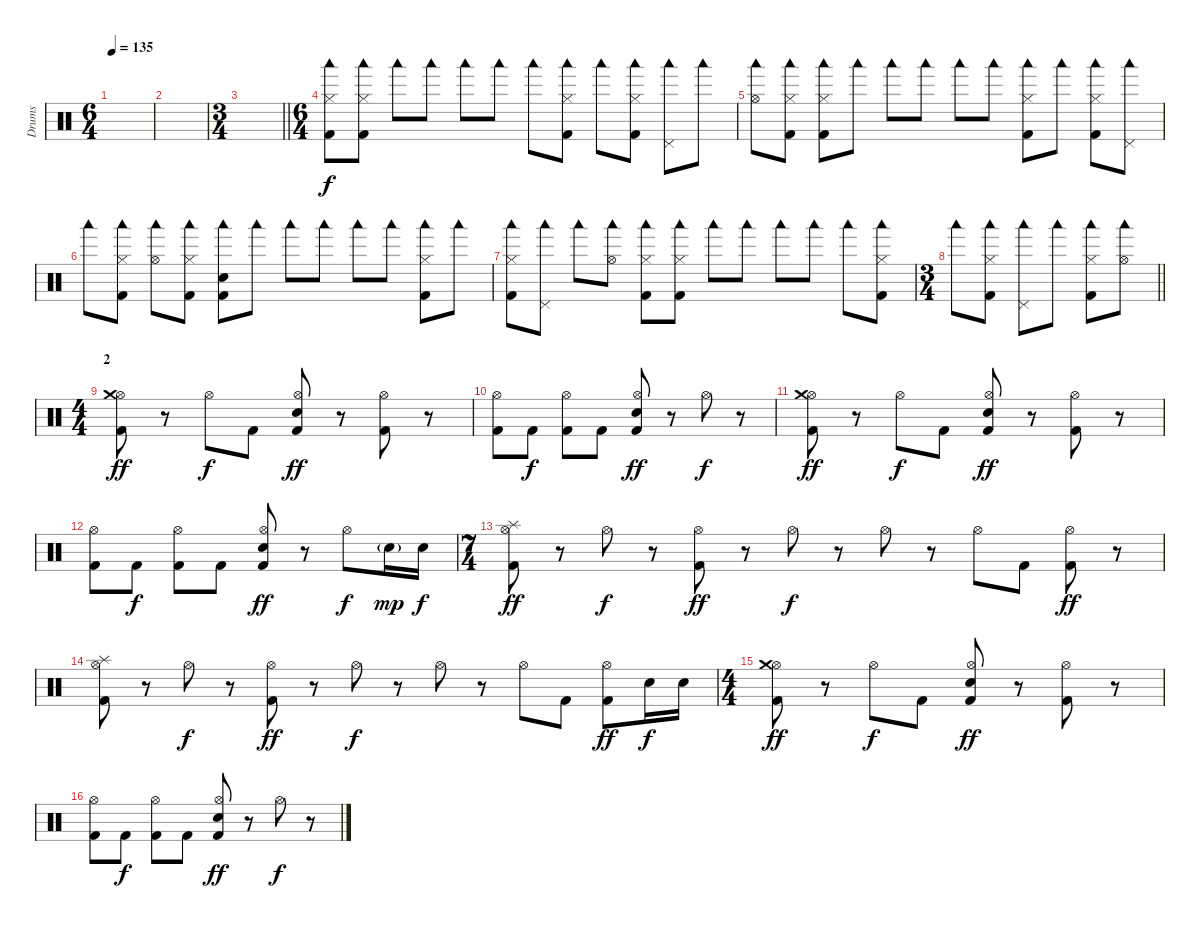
\track ("Drums" "Drums") {instrument percussion}
\staff {score}
\articulation defaults
\ts (6 4)
\tempo 135
\clef neutral
\ks c
|
|
\ts (3 4)
\barLineRight lightlight
|
\ts (6 4)
("Hi-Hat (closed)" "Woodblock low (hit)" "Kick (hit) 2").8{dy f} ("Hi-Hat (closed)" "Woodblock low (hit)" "Kick (hit) 2").8 "Woodblock low (hit)".8 "Woodblock low (hit)".8 "Woodblock low (hit)".8 "Woodblock low (hit)".8 "Woodblock low (hit)".8 ("Hi-Hat (closed)" "Woodblock low (hit)" "Kick (hit) 2").8 "Woodblock low (hit)".8 ("Hi-Hat (closed)" "Woodblock low (hit)" "Kick (hit) 2").8 ("Pedal Hi-Hat (hit)" "Woodblock low (hit)").8 "Woodblock low (hit)".8 |
("Hi-Hat (open)" "Woodblock low (hit)").8 ("Hi-Hat (closed)" "Woodblock low (hit)" "Kick (hit) 2").8 ("Hi-Hat (closed)" "Woodblock low (hit)" "Kick (hit) 2").8 "Woodblock low (hit)".8 "Woodblock low (hit)".8 "Woodblock low (hit)".8 "Woodblock low (hit)".8 "Woodblock low (hit)".8 ("Hi-Hat (closed)" "Woodblock low (hit)" "Kick (hit) 2").8 "Woodblock low (hit)".8 ("Hi-Hat (closed)" "Woodblock low (hit)" "Kick (hit) 2").8 ("Pedal Hi-Hat (hit)" "Woodblock low (hit)").8 |
"Woodblock low (hit)".8 ("Hi-Hat (closed)" "Woodblock low (hit)" "Kick (hit) 2").8 ("Hi-Hat (open)" "Woodblock low (hit)").8 ("Hi-Hat (closed)" "Woodblock low (hit)" "Kick (hit) 2").8 ("Snare (hit)" "Woodblock low (hit)" "Kick (hit) 2").8 "Woodblock low (hit)".8 "Woodblock low (hit)".8 "Woodblock low (hit)".8 "Woodblock low (hit)".8 "Woodblock low (hit)".8 ("Hi-Hat (closed)" "Woodblock low (hit)" "Kick (hit) 2").8 "Woodblock low (hit)".8 |
("Hi-Hat (closed)" "Woodblock low (hit)" "Kick (hit) 2").8 ("Pedal Hi-Hat (hit)" "Woodblock low (hit)").8 "Woodblock low (hit)".8 ("Hi-Hat (open)" "Woodblock low (hit)").8 ("Hi-Hat (closed)" "Woodblock low (hit)" "Kick (hit) 2").8 ("Hi-Hat (closed)" "Woodblock low (hit)" "Kick (hit) 2").8 "Woodblock low (hit)".8 "Woodblock low (hit)".8 "Woodblock low (hit)".8 "Woodblock low (hit)".8 "Woodblock low (hit)".8 ("Hi-Hat (closed)" "Woodblock low (hit)" "Kick (hit) 2").8 |
\ts (3 4)
\barLineRight lightlight "Woodblock low (hit)".8
("Hi-Hat (closed)" "Woodblock low (hit)" "Kick (hit) 2").8 ("Pedal Hi-Hat (hit)" "Woodblock low (hit)").8 "Woodblock low (hit)".8 ("Hi-Hat (closed)" "Woodblock low (hit)" "Kick (hit) 2").8 ("Hi-Hat (open)" "Woodblock low (hit)").8 |
\ts (4 4)
\section ("" "2")
("Hi-Hat (open)" "Crash medium (hit)" "Kick (hit) 2").8{dy ff} r.8 "Hi-Hat (open)".8{dy f} "Kick (hit) 2".8 ("Hi-Hat (open)" "Snare (hit) 2" "Kick (hit) 2").8{dy ff} r.8 ("Hi-Hat (open)" "Kick (hit) 2").8 r.8 |
("Hi-Hat (open)" "Kick (hit) 2").8 "Kick (hit) 2".8{dy f} ("Hi-Hat (open)" "Kick (hit) 2").8 "Kick (hit) 2".8 ("Hi-Hat (open)" "Snare (hit) 2" "Kick (hit) 2").8{dy ff} r.8 "Hi-Hat (open)".8{dy f} r.8 |
("Hi-Hat (open)" "Crash medium (hit)" "Kick (hit) 2").8{dy ff} r.8 "Hi-Hat (open)".8{dy f} "Kick (hit) 2".8 ("Hi-Hat (open)" "Snare (hit) 2" "Kick (hit) 2").8{dy ff} r.8 ("Hi-Hat (open)" "Kick (hit) 2").8 r.8 |
("Hi-Hat (open)" "Kick (hit) 2").8 "Kick (hit) 2".8{dy f} ("Hi-Hat (open)" "Kick (hit) 2").8 "Kick (hit) 2".8 ("Hi-Hat (open)" "Snare (hit) 2" "Kick (hit) 2").8{dy ff} r.8 "Hi-Hat (open)".8{dy f} "Snare (hit) 2"{g}.16{dy mp} "Snare (hit) 2".16{dy f} |
\ts (7 4)
("Hi-Hat (open)" "Splash (hit)" "Kick (hit) 2").8{dy ff} r.8 "Hi-Hat (open)".8{dy f} r.8 ("Hi-Hat (open)" "Kick (hit) 2").8{dy ff} r.8 "Hi-Hat (open)".8{dy f} r.8 "Hi-Hat (open)".8 r.8 "Hi-Hat (open)".8 "Kick (hit) 2".8 ("Hi-Hat (open)" "Kick (hit) 2").8{dy ff} r.8 |
("Hi-Hat (open)" "Splash (hit)" "Kick (hit) 2").8 r.8 "Hi-Hat (open)".8{dy f} r.8 ("Hi-Hat (open)" "Kick (hit) 2").8{dy ff} r.8 "Hi-Hat (open)".8{dy f} r.8 "Hi-Hat (open)".8 r.8 "Hi-Hat (open)".8 "Kick (hit) 2".8 ("Hi-Hat (open)" "Kick (hit) 2").8{dy ff} "Snare (hit) 2".16{dy f} "Snare (hit) 2".16 |
\ts (4 4)
("Hi-Hat (open)" "Crash medium (hit)" "Kick (hit) 2").8{dy ff} r.8 "Hi-Hat (open)".8{dy f} "Kick (hit) 2".8 ("Hi-Hat (open)" "Snare (hit) 2" "Kick (hit) 2").8{dy ff} r.8 ("Hi-Hat (open)" "Kick (hit) 2").8 r.8 |
("Hi-Hat (open)" "Kick (hit) 2").8 "Kick (hit) 2".8{dy f} ("Hi-Hat (open)" "Kick (hit) 2").8 "Kick (hit) 2".8 ("Hi-Hat (open)" "Snare (hit) 2" "Kick (hit) 2").8{dy ff} r.8 "Hi-Hat (open)".8{dy f} r.8
